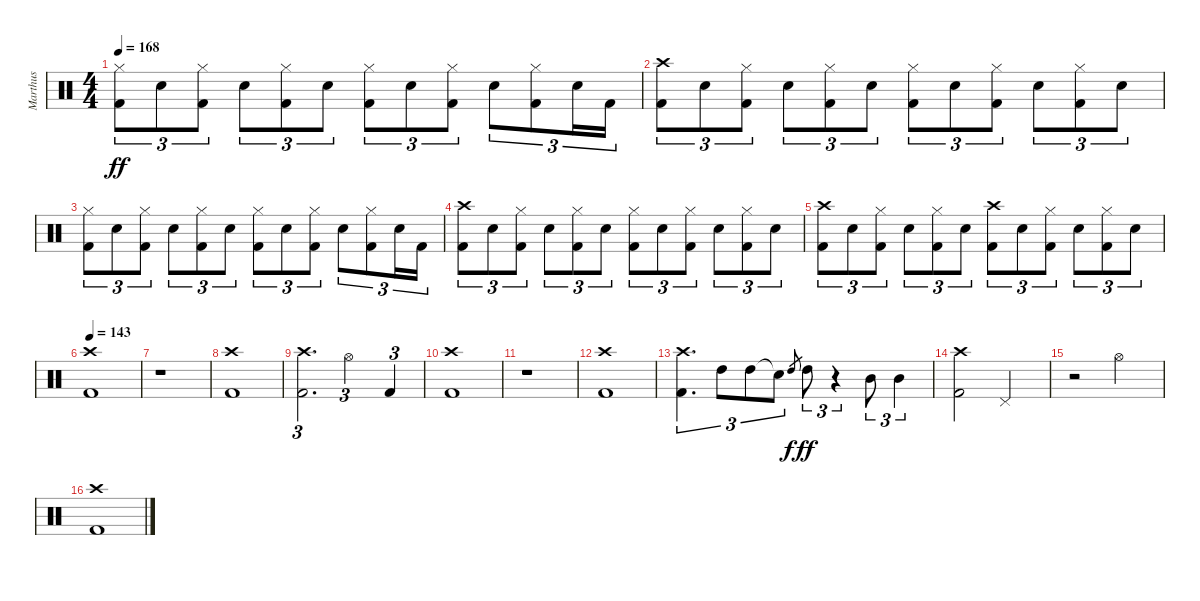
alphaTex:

\track ("Marthus" "Marthus") {instrument percussion}
\staff {score}
\articulation defaults
\ts (4 4)
\tempo 168
\clef neutral
\ks c
("Hi-Hat (closed)" "Kick (hit) 2").8{tu (3 2) dy ff} "Electric Snare (hit)".8{tu (3 2)} ("Hi-Hat (closed)" "Kick (hit) 2").8{tu (3 2)} "Electric Snare (hit)".8{tu (3 2)} ("Hi-Hat (closed)" "Kick (hit) 2").8{tu (3 2)} "Electric Snare (hit)".8{tu (3 2)} ("Hi-Hat (closed)" "Kick (hit) 2").8{tu (3 2)} "Electric Snare (hit)".8{tu (3 2)} ("Hi-Hat (closed)" "Kick (hit) 2").8{tu (3 2)} "Electric Snare (hit)".8{tu (3 2)} ("Hi-Hat (closed)" "Kick (hit) 2").8{tu (3 2)} "Electric Snare (hit)".16{tu (3 2)} "Kick (hit) 2".16{tu (3 2)} |
("Crash high (hit)" "Kick (hit) 2").8{tu (3 2)} "Electric Snare (hit)".8{tu (3 2)} ("Hi-Hat (closed)" "Kick (hit) 2").8{tu (3 2)} "Electric Snare (hit)".8{tu (3 2)} ("Hi-Hat (closed)" "Kick (hit) 2").8{tu (3 2)} "Electric Snare (hit)".8{tu (3 2)} ("Hi-Hat (closed)" "Kick (hit) 2").8{tu (3 2)} "Electric Snare (hit)".8{tu (3 2)} ("Hi-Hat (closed)" "Kick (hit) 2").8{tu (3 2)} "Electric Snare (hit)".8{tu (3 2)} ("Hi-Hat (closed)" "Kick (hit) 2").8{tu (3 2)} "Electric Snare (hit)".8{tu (3 2)} |
("Hi-Hat (closed)" "Kick (hit) 2").8{tu (3 2)} "Electric Snare (hit)".8{tu (3 2)} ("Hi-Hat (closed)" "Kick (hit) 2").8{tu (3 2)} "Electric Snare (hit)".8{tu (3 2)} ("Hi-Hat (closed)" "Kick (hit) 2").8{tu (3 2)} "Electric Snare (hit)".8{tu (3 2)} ("Hi-Hat (closed)" "Kick (hit) 2").8{tu (3 2)} "Electric Snare (hit)".8{tu (3 2)} ("Hi-Hat (closed)" "Kick (hit) 2").8{tu (3 2)} "Electric Snare (hit)".8{tu (3 2)} ("Hi-Hat (closed)" "Kick (hit) 2").8{tu (3 2)} "Electric Snare (hit)".16{tu (3 2)} "Kick (hit) 2".16{tu (3 2)} |
("Crash high (hit)" "Kick (hit) 2").8{tu (3 2)} "Electric Snare (hit)".8{tu (3 2)} ("Hi-Hat (closed)" "Kick (hit) 2").8{tu (3 2)} "Electric Snare (hit)".8{tu (3 2)} ("Hi-Hat (closed)" "Kick (hit) 2").8{tu (3 2)} "Electric Snare (hit)".8{tu (3 2)} ("Hi-Hat (closed)" "Kick (hit) 2").8{tu (3 2)} "Electric Snare (hit)".8{tu (3 2)} ("Hi-Hat (closed)" "Kick (hit) 2").8{tu (3 2)} "Electric Snare (hit)".8{tu (3 2)} ("Hi-Hat (closed)" "Kick (hit) 2").8{tu (3 2)} "Electric Snare (hit)".8{tu (3 2)} |
("Crash high (hit)" "Kick (hit) 2").8{tu (3 2)} "Electric Snare (hit)".8{tu (3 2)} ("Hi-Hat (closed)" "Kick (hit) 2").8{tu (3 2)} "Electric Snare (hit)".8{tu (3 2)} ("Hi-Hat (closed)" "Kick (hit) 2").8{tu (3 2)} "Electric Snare (hit)".8{tu (3 2)} ("Crash high (hit)" "Kick (hit) 2").8{tu (3 2)} "Electric Snare (hit)".8{tu (3 2)} ("Hi-Hat (closed)" "Kick (hit) 2").8{tu (3 2)} "Electric Snare (hit)".8{tu (3 2)} ("Hi-Hat (closed)" "Kick (hit) 2").8{tu (3 2)} "Electric Snare (hit)".8{tu (3 2)} |
\tempo 143
("Crash high (hit)" "Kick (hit) 2").1 |
r.1 |
("Crash high (hit)" "Kick (hit) 2").1 |
("Crash high (hit)" "Kick (hit) 2").2{d tu (3 2)} "Hi-Hat (open)".2{tu (3 2)} "Kick (hit) 2".4{tu (3 2)} |
("Crash high (hit)" "Kick (hit) 2").1 |
r.1 |
("Crash high (hit)" "Kick (hit) 2").1 |
("Crash high (hit)" "Kick (hit) 2").4{d tu (3 2)} "High Tom (hit)".8{tu (3 2)} "High Tom (hit)".8{tu (3 2)} "Snare (hit)"{t}.8{tu (3 2)} "High Tom (hit)".8{gr dy f} "High Tom (hit)".8{tu (3 2) dy ff} r.4{tu (3 2)} "Mid Tom (hit)".8{tu (3 2)} "Mid Tom (hit)".4{tu (3 2)} |
("Crash high (hit)" "Kick (hit) 2").2 "Pedal Hi-Hat (hit)".2 |
r.2 "Hi-Hat (open)".2 |
("Crash high (hit)" "Kick (hit) 2").1
